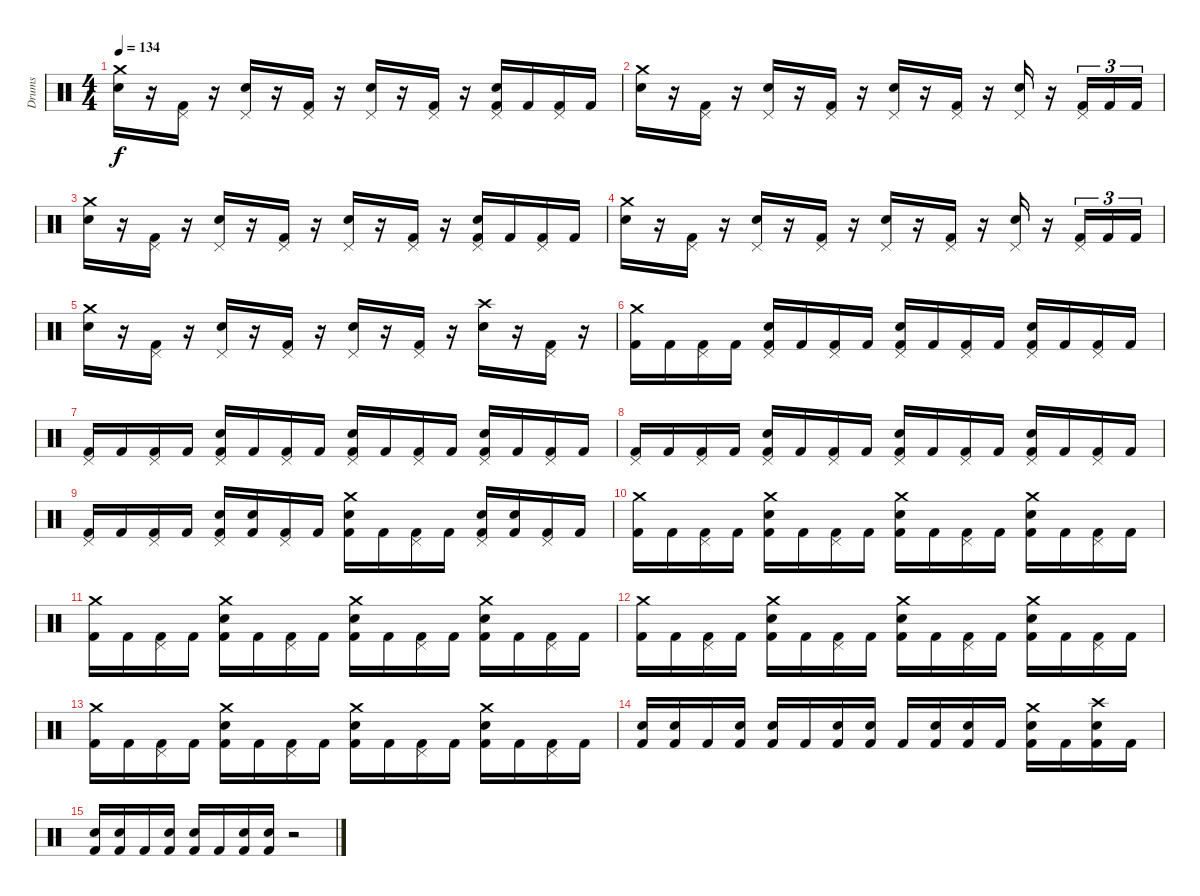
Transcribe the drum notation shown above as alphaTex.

\track ("Drums" "Drums") {instrument percussion}
\staff {score}
\articulation defaults
\ts (4 4)
\tempo 134
\clef neutral
\ks c
("Crash medium (hit)" "Electric Snare (hit)").16{dy f} r.16 ("Pedal Hi-Hat (hit)" "Kick (hit) 2").16 r.16 ("Pedal Hi-Hat (hit)" "Electric Snare (hit)").16 r.16 ("Pedal Hi-Hat (hit)" "Kick (hit) 2").16 r.16 ("Pedal Hi-Hat (hit)" "Electric Snare (hit)").16 r.16 ("Pedal Hi-Hat (hit)" "Kick (hit) 2").16 r.16 ("Pedal Hi-Hat (hit)" "Electric Snare (hit)" "Kick (hit) 2").16 "Kick (hit) 2".16 ("Pedal Hi-Hat (hit)" "Kick (hit) 2").16 "Kick (hit) 2".16 |
("Crash medium (hit)" "Electric Snare (hit)").16 r.16 ("Pedal Hi-Hat (hit)" "Kick (hit) 2").16 r.16 ("Pedal Hi-Hat (hit)" "Electric Snare (hit)").16 r.16 ("Pedal Hi-Hat (hit)" "Kick (hit) 2").16 r.16 ("Pedal Hi-Hat (hit)" "Electric Snare (hit)").16 r.16 ("Pedal Hi-Hat (hit)" "Kick (hit) 2").16 r.16 ("Pedal Hi-Hat (hit)" "Electric Snare (hit)").16 r.16 ("Pedal Hi-Hat (hit)" "Kick (hit) 2").16{tu (3 2)} "Kick (hit) 2".16{tu (3 2)} "Kick (hit) 2".16{tu (3 2)} |
("Crash medium (hit)" "Electric Snare (hit)").16 r.16 ("Pedal Hi-Hat (hit)" "Kick (hit) 2").16 r.16 ("Pedal Hi-Hat (hit)" "Electric Snare (hit)").16 r.16 ("Pedal Hi-Hat (hit)" "Kick (hit) 2").16 r.16 ("Pedal Hi-Hat (hit)" "Electric Snare (hit)").16 r.16 ("Pedal Hi-Hat (hit)" "Kick (hit) 2").16 r.16 ("Pedal Hi-Hat (hit)" "Electric Snare (hit)" "Kick (hit) 2").16 "Kick (hit) 2".16 ("Pedal Hi-Hat (hit)" "Kick (hit) 2").16 "Kick (hit) 2".16 |
("Crash medium (hit)" "Electric Snare (hit)").16 r.16 ("Pedal Hi-Hat (hit)" "Kick (hit) 2").16 r.16 ("Pedal Hi-Hat (hit)" "Electric Snare (hit)").16 r.16 ("Pedal Hi-Hat (hit)" "Kick (hit) 2").16 r.16 ("Pedal Hi-Hat (hit)" "Electric Snare (hit)").16 r.16 ("Pedal Hi-Hat (hit)" "Kick (hit) 2").16 r.16 ("Pedal Hi-Hat (hit)" "Electric Snare (hit)").16 r.16 ("Pedal Hi-Hat (hit)" "Kick (hit) 2").16{tu (3 2)} "Kick (hit) 2".16{tu (3 2)} "Kick (hit) 2".16{tu (3 2)} |
("Crash medium (hit)" "Electric Snare (hit)").16 r.16 ("Pedal Hi-Hat (hit)" "Kick (hit) 2").16 r.16 ("Pedal Hi-Hat (hit)" "Electric Snare (hit)").16 r.16 ("Pedal Hi-Hat (hit)" "Kick (hit) 2").16 r.16 ("Pedal Hi-Hat (hit)" "Electric Snare (hit)").16 r.16 ("Pedal Hi-Hat (hit)" "Kick (hit) 2").16 r.16 ("Crash high (hit)" "Electric Snare (hit)").16 r.16 ("Pedal Hi-Hat (hit)" "Kick (hit) 2").16 r.16 |
("Crash medium (hit)" "Kick (hit) 2").16 "Kick (hit) 2".16 ("Pedal Hi-Hat (hit)" "Kick (hit) 2").16 "Kick (hit) 2".16 ("Pedal Hi-Hat (hit)" "Electric Snare (hit)" "Kick (hit) 2").16 "Kick (hit) 2".16 ("Pedal Hi-Hat (hit)" "Kick (hit) 2").16 "Kick (hit) 2".16 ("Pedal Hi-Hat (hit)" "Electric Snare (hit)" "Kick (hit) 2").16 "Kick (hit) 2".16 ("Pedal Hi-Hat (hit)" "Kick (hit) 2").16 "Kick (hit) 2".16 ("Pedal Hi-Hat (hit)" "Electric Snare (hit)" "Kick (hit) 2").16 "Kick (hit) 2".16 ("Pedal Hi-Hat (hit)" "Kick (hit) 2").16 "Kick (hit) 2".16 |
("Pedal Hi-Hat (hit)" "Kick (hit) 2").16 "Kick (hit) 2".16 ("Pedal Hi-Hat (hit)" "Kick (hit) 2").16 "Kick (hit) 2".16 ("Pedal Hi-Hat (hit)" "Electric Snare (hit)" "Kick (hit) 2").16 "Kick (hit) 2".16 ("Pedal Hi-Hat (hit)" "Kick (hit) 2").16 "Kick (hit) 2".16 ("Pedal Hi-Hat (hit)" "Electric Snare (hit)" "Kick (hit) 2").16 "Kick (hit) 2".16 ("Pedal Hi-Hat (hit)" "Kick (hit) 2").16 "Kick (hit) 2".16 ("Pedal Hi-Hat (hit)" "Electric Snare (hit)" "Kick (hit) 2").16 "Kick (hit) 2".16 ("Pedal Hi-Hat (hit)" "Kick (hit) 2").16 "Kick (hit) 2".16 |
("Pedal Hi-Hat (hit)" "Kick (hit) 2").16 "Kick (hit) 2".16 ("Pedal Hi-Hat (hit)" "Kick (hit) 2").16 "Kick (hit) 2".16 ("Pedal Hi-Hat (hit)" "Electric Snare (hit)" "Kick (hit) 2").16 "Kick (hit) 2".16 ("Pedal Hi-Hat (hit)" "Kick (hit) 2").16 "Kick (hit) 2".16 ("Pedal Hi-Hat (hit)" "Electric Snare (hit)" "Kick (hit) 2").16 "Kick (hit) 2".16 ("Pedal Hi-Hat (hit)" "Kick (hit) 2").16 "Kick (hit) 2".16 ("Pedal Hi-Hat (hit)" "Electric Snare (hit)" "Kick (hit) 2").16 "Kick (hit) 2".16 ("Pedal Hi-Hat (hit)" "Kick (hit) 2").16 "Kick (hit) 2".16 |
("Pedal Hi-Hat (hit)" "Kick (hit) 2").16 "Kick (hit) 2".16 ("Pedal Hi-Hat (hit)" "Kick (hit) 2").16 "Kick (hit) 2".16 ("Pedal Hi-Hat (hit)" "Electric Snare (hit)" "Kick (hit) 2").16 ("Electric Snare (hit)" "Kick (hit) 2").16 ("Pedal Hi-Hat (hit)" "Kick (hit) 2").16 "Kick (hit) 2".16 ("Crash medium (hit)" "Electric Snare (hit)" "Kick (hit) 2").16 "Kick (hit) 2".16 ("Pedal Hi-Hat (hit)" "Kick (hit) 2").16 "Kick (hit) 2".16 ("Pedal Hi-Hat (hit)" "Electric Snare (hit)" "Kick (hit) 2").16 ("Electric Snare (hit)" "Kick (hit) 2").16 ("Pedal Hi-Hat (hit)" "Kick (hit) 2").16 "Kick (hit) 2".16 |
("Crash medium (hit)" "Kick (hit) 2").16 "Kick (hit) 2".16 ("Pedal Hi-Hat (hit)" "Kick (hit) 2").16 "Kick (hit) 2".16 ("Crash medium (hit)" "Electric Snare (hit)" "Kick (hit) 2").16 "Kick (hit) 2".16 ("Pedal Hi-Hat (hit)" "Kick (hit) 2").16 "Kick (hit) 2".16 ("Crash medium (hit)" "Electric Snare (hit)" "Kick (hit) 2").16 "Kick (hit) 2".16 ("Pedal Hi-Hat (hit)" "Kick (hit) 2").16 "Kick (hit) 2".16 ("Crash medium (hit)" "Electric Snare (hit)" "Kick (hit) 2").16 "Kick (hit) 2".16 ("Pedal Hi-Hat (hit)" "Kick (hit) 2").16 "Kick (hit) 2".16 |
("Crash medium (hit)" "Kick (hit) 2").16 "Kick (hit) 2".16 ("Pedal Hi-Hat (hit)" "Kick (hit) 2").16 "Kick (hit) 2".16 ("Crash medium (hit)" "Electric Snare (hit)" "Kick (hit) 2").16 "Kick (hit) 2".16 ("Pedal Hi-Hat (hit)" "Kick (hit) 2").16 "Kick (hit) 2".16 ("Crash medium (hit)" "Electric Snare (hit)" "Kick (hit) 2").16 "Kick (hit) 2".16 ("Pedal Hi-Hat (hit)" "Kick (hit) 2").16 "Kick (hit) 2".16 ("Crash medium (hit)" "Electric Snare (hit)" "Kick (hit) 2").16 "Kick (hit) 2".16 ("Pedal Hi-Hat (hit)" "Kick (hit) 2").16 "Kick (hit) 2".16 |
("Crash medium (hit)" "Kick (hit) 2").16 "Kick (hit) 2".16 ("Pedal Hi-Hat (hit)" "Kick (hit) 2").16 "Kick (hit) 2".16 ("Crash medium (hit)" "Electric Snare (hit)" "Kick (hit) 2").16 "Kick (hit) 2".16 ("Pedal Hi-Hat (hit)" "Kick (hit) 2").16 "Kick (hit) 2".16 ("Crash medium (hit)" "Electric Snare (hit)" "Kick (hit) 2").16 "Kick (hit) 2".16 ("Pedal Hi-Hat (hit)" "Kick (hit) 2").16 "Kick (hit) 2".16 ("Crash medium (hit)" "Electric Snare (hit)" "Kick (hit) 2").16 "Kick (hit) 2".16 ("Pedal Hi-Hat (hit)" "Kick (hit) 2").16 "Kick (hit) 2".16 |
("Crash medium (hit)" "Kick (hit) 2").16 "Kick (hit) 2".16 ("Pedal Hi-Hat (hit)" "Kick (hit) 2").16 "Kick (hit) 2".16 ("Crash medium (hit)" "Electric Snare (hit)" "Kick (hit) 2").16 "Kick (hit) 2".16 ("Pedal Hi-Hat (hit)" "Kick (hit) 2").16 "Kick (hit) 2".16 ("Crash medium (hit)" "Electric Snare (hit)" "Kick (hit) 2").16 "Kick (hit) 2".16 ("Pedal Hi-Hat (hit)" "Kick (hit) 2").16 "Kick (hit) 2".16 ("Crash medium (hit)" "Electric Snare (hit)" "Kick (hit) 2").16 "Kick (hit) 2".16 ("Pedal Hi-Hat (hit)" "Kick (hit) 2").16 "Kick (hit) 2".16 |
("Electric Snare (hit)" "Kick (hit) 2").16 ("Electric Snare (hit)" "Kick (hit) 2").16 "Kick (hit) 2".16 ("Electric Snare (hit)" "Kick (hit) 2").16 ("Electric Snare (hit)" "Kick (hit) 2").16 "Kick (hit) 2".16 ("Electric Snare (hit)" "Kick (hit) 2").16 ("Electric Snare (hit)" "Kick (hit) 2").16 "Kick (hit) 2".16 ("Electric Snare (hit)" "Kick (hit) 2").16 ("Electric Snare (hit)" "Kick (hit) 2").16 "Kick (hit) 2".16 ("Crash medium (hit)" "Electric Snare (hit)" "Kick (hit) 2").16 "Kick (hit) 2".16 ("Crash high (hit)" "Electric Snare (hit)" "Kick (hit) 2").16 "Kick (hit) 2".16 |
("Electric Snare (hit)" "Kick (hit) 2").16 ("Electric Snare (hit)" "Kick (hit) 2").16 "Kick (hit) 2".16 ("Electric Snare (hit)" "Kick (hit) 2").16 ("Electric Snare (hit)" "Kick (hit) 2").16 "Kick (hit) 2".16 ("Electric Snare (hit)" "Kick (hit) 2").16 ("Electric Snare (hit)" "Kick (hit) 2").16 r.2
